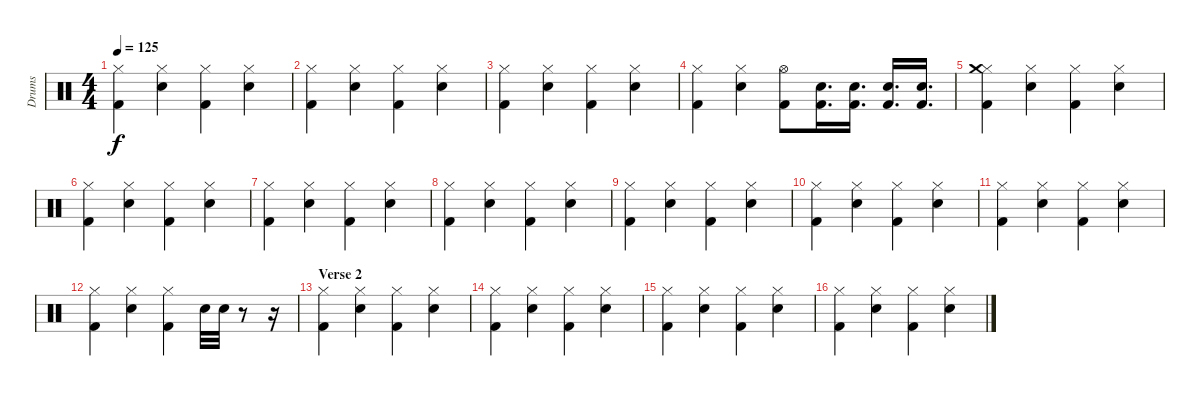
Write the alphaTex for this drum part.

\track ("Drums" "Drums") {instrument percussion}
\staff {score}
\articulation defaults
\ts (4 4)
\tempo 125
\clef neutral
\ks c
("Hi-Hat (closed)" "Kick (hit) 2").4{dy f} ("Hi-Hat (closed)" "Electric Snare (hit)").4 ("Hi-Hat (closed)" "Kick (hit) 2").4 ("Hi-Hat (closed)" "Electric Snare (hit)").4 |
("Hi-Hat (closed)" "Kick (hit) 2").4 ("Hi-Hat (closed)" "Electric Snare (hit)").4 ("Hi-Hat (closed)" "Kick (hit) 2").4 ("Hi-Hat (closed)" "Electric Snare (hit)").4 |
("Hi-Hat (closed)" "Kick (hit) 2").4 ("Hi-Hat (closed)" "Electric Snare (hit)").4 ("Hi-Hat (closed)" "Kick (hit) 2").4 ("Hi-Hat (closed)" "Electric Snare (hit)").4 |
("Hi-Hat (closed)" "Kick (hit) 2").4 ("Hi-Hat (closed)" "Electric Snare (hit)").4 ("Hi-Hat (open)" "Kick (hit) 2").8 ("Electric Snare (hit)" "Kick (hit) 2").16{d} ("Electric Snare (hit)" "Kick (hit) 2").16{d} ("Electric Snare (hit)" "Kick (hit) 2").16{d} ("Electric Snare (hit)" "Kick (hit) 2").16{d} |
("Hi-Hat (closed)" "Crash medium (hit)" "Kick (hit) 2").4 ("Hi-Hat (closed)" "Electric Snare (hit)").4 ("Hi-Hat (closed)" "Kick (hit) 2").4 ("Hi-Hat (closed)" "Electric Snare (hit)").4 |
("Hi-Hat (closed)" "Kick (hit) 2").4 ("Hi-Hat (closed)" "Electric Snare (hit)").4 ("Hi-Hat (closed)" "Kick (hit) 2").4 ("Hi-Hat (closed)" "Electric Snare (hit)").4 |
("Hi-Hat (closed)" "Kick (hit) 2").4 ("Hi-Hat (closed)" "Electric Snare (hit)").4 ("Hi-Hat (closed)" "Kick (hit) 2").4 ("Hi-Hat (closed)" "Electric Snare (hit)").4 |
("Hi-Hat (closed)" "Kick (hit) 2").4 ("Hi-Hat (closed)" "Electric Snare (hit)").4 ("Hi-Hat (closed)" "Kick (hit) 2").4 ("Hi-Hat (closed)" "Electric Snare (hit)").4 |
("Hi-Hat (closed)" "Kick (hit) 2").4 ("Hi-Hat (closed)" "Electric Snare (hit)").4 ("Hi-Hat (closed)" "Kick (hit) 2").4 ("Hi-Hat (closed)" "Electric Snare (hit)").4 |
("Hi-Hat (closed)" "Kick (hit) 2").4 ("Hi-Hat (closed)" "Electric Snare (hit)").4 ("Hi-Hat (closed)" "Kick (hit) 2").4 ("Hi-Hat (closed)" "Electric Snare (hit)").4 |
("Hi-Hat (closed)" "Kick (hit) 2").4 ("Hi-Hat (closed)" "Electric Snare (hit)").4 ("Hi-Hat (closed)" "Kick (hit) 2").4 ("Hi-Hat (closed)" "Electric Snare (hit)").4 |
("Hi-Hat (closed)" "Kick (hit) 2").4 ("Hi-Hat (closed)" "Electric Snare (hit)").4 ("Hi-Hat (closed)" "Kick (hit) 2").4 "Electric Snare (hit)".32 "Electric Snare (hit)".32 r.8 r.16 |
\section ("" "Verse 2")
("Hi-Hat (closed)" "Kick (hit) 2").4 ("Hi-Hat (closed)" "Electric Snare (hit)").4 ("Hi-Hat (closed)" "Kick (hit) 2").4 ("Hi-Hat (closed)" "Electric Snare (hit)").4 |
("Hi-Hat (closed)" "Kick (hit) 2").4 ("Hi-Hat (closed)" "Electric Snare (hit)").4 ("Hi-Hat (closed)" "Kick (hit) 2").4 ("Hi-Hat (closed)" "Electric Snare (hit)").4 |
("Hi-Hat (closed)" "Kick (hit) 2").4 ("Hi-Hat (closed)" "Electric Snare (hit)").4 ("Hi-Hat (closed)" "Kick (hit) 2").4 ("Hi-Hat (closed)" "Electric Snare (hit)").4 |
("Hi-Hat (closed)" "Kick (hit) 2").4 ("Hi-Hat (closed)" "Electric Snare (hit)").4 ("Hi-Hat (closed)" "Kick (hit) 2").4 ("Hi-Hat (closed)" "Electric Snare (hit)").4
